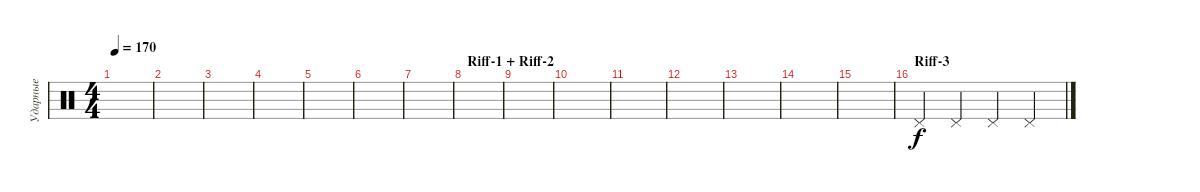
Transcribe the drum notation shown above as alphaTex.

\track ("Ударные" "Ударные") {instrument percussion}
\staff {score}
\articulation defaults
\ts (4 4)
\tempo 170
\clef neutral
\ks c
|
|
|
|
|
|
|
\section ("" "Riff-1 + Riff-2")
|
|
|
|
|
|
|
|
\section ("" "Riff-3")
"Pedal Hi-Hat (hit)".4 "Pedal Hi-Hat (hit)".4 "Pedal Hi-Hat (hit)".4 "Pedal Hi-Hat (hit)".4
